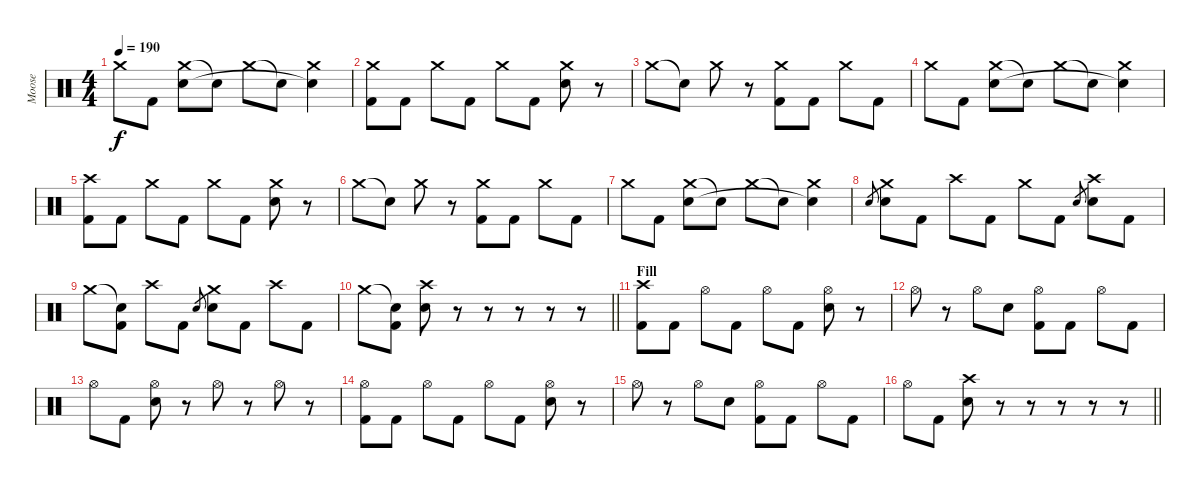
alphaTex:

\track ("Moose" "Moose") {instrument percussion}
\staff {score}
\articulation defaults
\ts (4 4)
\tempo 190
\clef neutral
\ks c "Crash medium (hit)".8{dy f} "Kick (hit) 2".8
("Crash medium (hit)" "Snare (hit) 2").8 "Snare (hit)"{t}.8 "Crash medium (hit)".8 "Snare (hit)"{t}.8 ("Crash medium (hit)" "Snare (hit)"{t}).4 |
("Crash medium (hit)" "Kick (hit) 2").8 "Kick (hit) 2".8 "Crash medium (hit)".8 "Kick (hit) 2".8 "Crash medium (hit)".8 "Kick (hit) 2".8 ("Crash medium (hit)" "Snare (hit) 2").8 r.8 |
"Crash medium (hit)".8 "Snare (hit)"{t}.8 "Crash medium (hit)".8 r.8 ("Crash medium (hit)" "Kick (hit) 2").8 "Kick (hit) 2".8 "Crash medium (hit)".8 "Kick (hit) 2".8 |
"Crash medium (hit)".8 "Kick (hit) 2".8 ("Crash medium (hit)" "Snare (hit) 2").8 "Snare (hit)"{t}.8 "Crash medium (hit)".8 "Snare (hit)"{t}.8 ("Crash medium (hit)" "Snare (hit)"{t}).4 |
("Crash high (hit)" "Kick (hit) 2").8 "Kick (hit) 2".8 "Crash medium (hit)".8 "Kick (hit) 2".8 "Crash medium (hit)".8 "Kick (hit) 2".8 ("Crash medium (hit)" "Snare (hit) 2").8 r.8 |
"Crash medium (hit)".8 "Snare (hit)"{t}.8 "Crash medium (hit)".8 r.8 ("Crash medium (hit)" "Kick (hit) 2").8 "Kick (hit) 2".8 "Crash medium (hit)".8 "Kick (hit) 2".8 |
"Crash medium (hit)".8 "Kick (hit) 2".8 ("Crash medium (hit)" "Snare (hit) 2").8 "Snare (hit)"{t}.8 "Crash medium (hit)".8 "Snare (hit)"{t}.8 ("Crash medium (hit)" "Snare (hit)"{t}).4 |
"Snare (hit) 2".8{gr} ("Crash medium (hit)" "Snare (hit) 2").8 "Kick (hit) 2".8 "Crash high (hit)".8 "Kick (hit) 2".8 "Crash medium (hit)".8 "Kick (hit) 2".8 "Snare (hit) 2".8{gr} ("Crash high (hit)" "Snare (hit) 2").8 "Kick (hit) 2".8 |
"Crash medium (hit)".8 ("Snare (hit)"{t} "Kick (hit) 2").8 "Crash high (hit)".8 "Kick (hit) 2".8 "Snare (hit) 2".8{gr} ("Crash medium (hit)" "Snare (hit) 2").8 "Kick (hit) 2".8 "Crash high (hit)".8 "Kick (hit) 2".8 |
\barLineRight lightlight "Crash medium (hit)".8
("Snare (hit)"{t} "Kick (hit) 2").8 ("Crash high (hit)" "Snare (hit) 2").8 r.8 r.8 r.8 r.8 r.8 |
\section ("" "Fill")
("Crash high (hit)" "Kick (hit) 2").8 "Kick (hit) 2".8 "Hi-Hat (open)".8 "Kick (hit) 2".8 "Hi-Hat (open)".8 "Kick (hit) 2".8 ("Hi-Hat (open)" "Snare (hit) 2").8 r.8 |
"Hi-Hat (open)".8 r.8 "Hi-Hat (open)".8 "Snare (hit) 2".8 ("Hi-Hat (open)" "Kick (hit) 2").8 "Kick (hit) 2".8 "Hi-Hat (open)".8 "Kick (hit) 2".8 |
"Hi-Hat (open)".8 "Kick (hit) 2".8 ("Hi-Hat (open)" "Snare (hit) 2").8 r.8 "Hi-Hat (open)".8 r.8 "Hi-Hat (open)".8 r.8 |
("Hi-Hat (open)" "Kick (hit) 2").8 "Kick (hit) 2".8 "Hi-Hat (open)".8 "Kick (hit) 2".8 "Hi-Hat (open)".8 "Kick (hit) 2".8 ("Hi-Hat (open)" "Snare (hit) 2").8 r.8 |
"Hi-Hat (open)".8 r.8 "Hi-Hat (open)".8 "Snare (hit) 2".8 ("Hi-Hat (open)" "Kick (hit) 2").8 "Kick (hit) 2".8 "Hi-Hat (open)".8 "Kick (hit) 2".8 |
\barLineRight lightlight "Hi-Hat (open)".8 "Kick (hit) 2".8
("Crash high (hit)" "Snare (hit) 2").8 r.8 r.8 r.8 r.8 r.8
